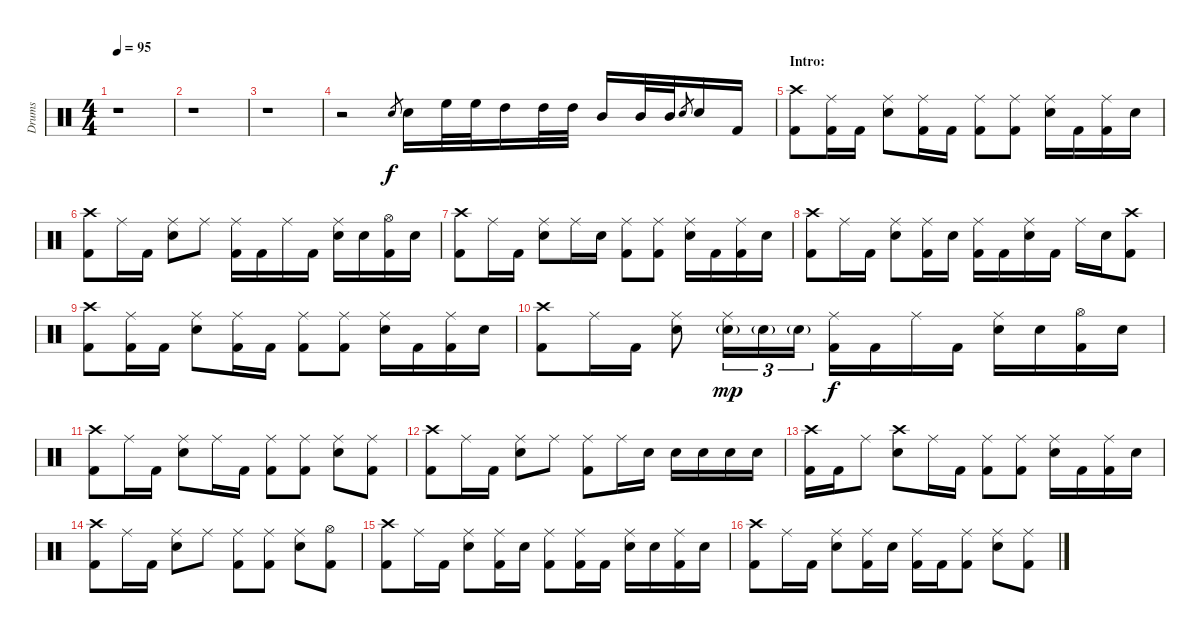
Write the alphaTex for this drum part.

\track ("Drums" "Drums") {instrument percussion}
\staff {score}
\articulation defaults
\ts (4 4)
\tempo 95
\clef neutral
\ks c
r.1{dy f} |
r.1 |
r.1 |
r.2 "Electric Snare (hit)".8{gr} "Electric Snare (hit)".16 "High Floor Tom (hit)".32 "High Floor Tom (hit)".32 "High Tom (hit)".16 "High Tom (hit)".32 "High Tom (hit)".32 "Mid Tom (hit)".16 "Mid Tom (hit)".32 "Mid Tom (hit)".32 "Electric Snare (hit)".8{gr} "Electric Snare (hit)".16 "Kick (hit) 2".16 |
\section ("" "Intro:")
("Crash high (hit)" "Kick (hit) 2").8 ("Ride (middle)" "Kick (hit) 2").16 "Kick (hit) 2".16 ("Ride (middle)" "Electric Snare (hit)").8 ("Ride (middle)" "Kick (hit) 2").16 "Kick (hit) 2".16 ("Ride (middle)" "Kick (hit) 2").8 ("Ride (middle)" "Kick (hit) 2").8 ("Ride (middle)" "Electric Snare (hit)").16 "Kick (hit) 2".16 ("Ride (middle)" "Kick (hit) 2").16 "Electric Snare (hit)".16 |
("Crash high (hit)" "Kick (hit) 2").8 "Ride (middle)".16 "Kick (hit) 2".16 ("Ride (middle)" "Electric Snare (hit)").8 "Ride (middle)".8 ("Ride (middle)" "Kick (hit) 2").16 "Kick (hit) 2".16 "Ride (middle)".16 "Kick (hit) 2".16 ("Ride (middle)" "Electric Snare (hit)").16 "Electric Snare (hit)".16 ("Hi-Hat (open)" "Kick (hit) 2").16 "Electric Snare (hit)".16 |
("Crash high (hit)" "Kick (hit) 2").8 "Ride (middle)".16 "Kick (hit) 2".16 ("Ride (middle)" "Electric Snare (hit)").8 "Ride (middle)".16 "Electric Snare (hit)".16 ("Ride (middle)" "Kick (hit) 2").8 ("Ride (middle)" "Kick (hit) 2").8 ("Ride (middle)" "Electric Snare (hit)").16 "Kick (hit) 2".16 ("Ride (middle)" "Kick (hit) 2").16 "Electric Snare (hit)".16 |
("Crash high (hit)" "Kick (hit) 2").8 "Ride (middle)".16 "Kick (hit) 2".16 ("Ride (middle)" "Electric Snare (hit)").8 ("Ride (middle)" "Kick (hit) 2").16 "Electric Snare (hit)".16 ("Ride (middle)" "Kick (hit) 2").16 "Kick (hit) 2".16 ("Ride (middle)" "Electric Snare (hit)").16 "Kick (hit) 2".16 "Ride (middle)".16 "Electric Snare (hit)".16 ("Crash high (hit)" "Kick (hit) 2").8 |
("Crash high (hit)" "Kick (hit) 2").8 ("Ride (middle)" "Kick (hit) 2").16 "Kick (hit) 2".16 ("Ride (middle)" "Electric Snare (hit)").8 ("Ride (middle)" "Kick (hit) 2").16 "Kick (hit) 2".16 ("Ride (middle)" "Kick (hit) 2").8 ("Ride (middle)" "Kick (hit) 2").8 ("Ride (middle)" "Electric Snare (hit)").16 "Kick (hit) 2".16 ("Ride (middle)" "Kick (hit) 2").16 "Electric Snare (hit)".16 |
("Crash high (hit)" "Kick (hit) 2").8 "Ride (middle)".16 "Kick (hit) 2".16 ("Ride (middle)" "Electric Snare (hit)").8 ("Ride (middle)" "Electric Snare (hit)"{g}).16{tu (3 2) dy mp} "Electric Snare (hit)"{g}.16{tu (3 2)} "Electric Snare (hit)"{g}.16{tu (3 2)} ("Ride (middle)" "Kick (hit) 2").16{dy f} "Kick (hit) 2".16 "Ride (middle)".16 "Kick (hit) 2".16 ("Ride (middle)" "Electric Snare (hit)").16 "Electric Snare (hit)".16 ("Hi-Hat (open)" "Kick (hit) 2").16 "Electric Snare (hit)".16 |
("Crash high (hit)" "Kick (hit) 2").8 "Ride (middle)".16 "Kick (hit) 2".16 ("Ride (middle)" "Electric Snare (hit)").8 "Ride (middle)".16 "Kick (hit) 2".16 ("Ride (middle)" "Kick (hit) 2").8 ("Ride (middle)" "Kick (hit) 2").8 ("Ride (middle)" "Electric Snare (hit)").8 ("Ride (middle)" "Kick (hit) 2").8 |
("Crash high (hit)" "Kick (hit) 2").8 "Ride (middle)".16 "Kick (hit) 2".16 ("Ride (middle)" "Electric Snare (hit)").8 "Ride (middle)".8 ("Ride (middle)" "Kick (hit) 2").8 "Ride (middle)".16 "Electric Snare (hit)".16 "Electric Snare (hit)".16 "Electric Snare (hit)".16 "Electric Snare (hit)".16 "Electric Snare (hit)".16 |
("Crash high (hit)" "Kick (hit) 2").16 "Kick (hit) 2".16 "Ride (middle)".8 ("Crash high (hit)" "Electric Snare (hit)").8 "Ride (middle)".16 "Kick (hit) 2".16 ("Ride (middle)" "Kick (hit) 2").8 ("Ride (middle)" "Kick (hit) 2").8 ("Ride (middle)" "Electric Snare (hit)").16 "Kick (hit) 2".16 ("Ride (middle)" "Kick (hit) 2").16 "Electric Snare (hit)".16 |
("Crash high (hit)" "Kick (hit) 2").8 "Ride (middle)".16 "Kick (hit) 2".16 ("Ride (middle)" "Electric Snare (hit)").8 "Ride (middle)".8 ("Ride (middle)" "Kick (hit) 2").8 ("Ride (middle)" "Kick (hit) 2").8 ("Ride (middle)" "Electric Snare (hit)").8 ("Hi-Hat (open)" "Kick (hit) 2").8 |
("Crash high (hit)" "Kick (hit) 2").8 "Ride (middle)".16 "Kick (hit) 2".16 ("Ride (middle)" "Electric Snare (hit)").8 ("Ride (middle)" "Kick (hit) 2").16 "Electric Snare (hit)".16 ("Ride (middle)" "Kick (hit) 2").8 ("Ride (middle)" "Kick (hit) 2").16 "Kick (hit) 2".16 ("Ride (middle)" "Electric Snare (hit)").16 "Electric Snare (hit)".16 ("Ride (middle)" "Kick (hit) 2").16 "Electric Snare (hit)".16 |
("Crash high (hit)" "Kick (hit) 2").8 "Ride (middle)".16 "Kick (hit) 2".16 ("Ride (middle)" "Electric Snare (hit)").8 ("Ride (middle)" "Kick (hit) 2").16 "Electric Snare (hit)".16 ("Ride (middle)" "Kick (hit) 2").16 "Kick (hit) 2".16 ("Ride (middle)" "Kick (hit) 2").8 ("Ride (middle)" "Electric Snare (hit)").8 ("Ride (middle)" "Kick (hit) 2").8
